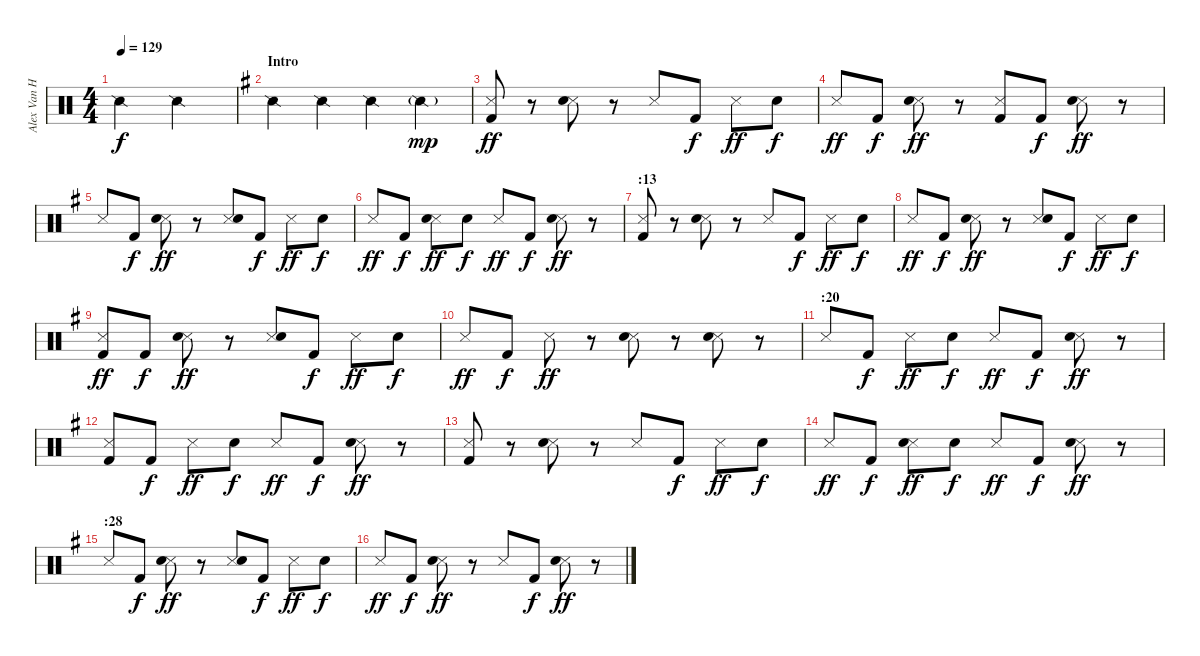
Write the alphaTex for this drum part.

\track ("Alex Van Halen" "Alex Van H") {instrument percussion}
\staff {score}
\articulation defaults
\ts (4 4)
\tempo 129
\clef neutral
\ks c "Snare (side stick) 2".2{dy f} "Snare (side stick) 2".2
|
\section ("" "Intro")
\ks eminor "Snare (side stick) 2".4 "Snare (side stick) 2".4 "Snare (side stick) 2".4 "Snare (side stick) 2"{g}.4{dy mp}
|
("Snare (side stick) 3" "Kick (hit) 2").8{dy ff} r.8 ("Snare (side stick) 3" "Snare (hit) 2").8 r.8 "Snare (side stick) 3".8 "Kick (hit) 2".8{dy f} "Snare (side stick) 3".8{dy ff} "Snare (hit) 2".8{dy f} |
"Snare (side stick) 3".8{dy ff} "Kick (hit) 2".8{dy f} ("Snare (side stick) 3" "Snare (hit) 2").8{dy ff} r.8 ("Snare (side stick) 3" "Kick (hit) 2").8 "Kick (hit) 2".8{dy f} ("Snare (side stick) 3" "Snare (hit) 2").8{dy ff} r.8 |
"Snare (side stick) 3".8 "Kick (hit) 2".8{dy f} ("Snare (side stick) 3" "Snare (hit) 2").8{dy ff} r.8 ("Snare (side stick) 3" "Snare (hit) 2").8 "Kick (hit) 2".8{dy f} "Snare (side stick) 3".8{dy ff} "Snare (hit) 2".8{dy f} |
"Snare (side stick) 3".8{dy ff} "Kick (hit) 2".8{dy f} ("Snare (side stick) 3" "Snare (hit) 2").8{dy ff} "Snare (hit) 2".8{dy f} "Snare (side stick) 3".8{dy ff} "Kick (hit) 2".8{dy f} ("Snare (side stick) 3" "Snare (hit) 2").8{dy ff} r.8 |
\section ("" ":13")
("Snare (side stick) 3" "Kick (hit) 2").8 r.8 ("Snare (side stick) 3" "Snare (hit) 2").8 r.8 "Snare (side stick) 3".8 "Kick (hit) 2".8{dy f} "Snare (side stick) 3".8{dy ff} "Snare (hit) 2".8{dy f} |
"Snare (side stick) 3".8{dy ff} "Kick (hit) 2".8{dy f} ("Snare (side stick) 3" "Snare (hit) 2").8{dy ff} r.8 ("Snare (side stick) 3" "Snare (hit) 2").8 "Kick (hit) 2".8{dy f} "Snare (side stick) 3".8{dy ff} "Snare (hit) 2".8{dy f} |
("Snare (side stick) 3" "Kick (hit) 2").8{dy ff} "Kick (hit) 2".8{dy f} ("Snare (side stick) 3" "Snare (hit) 2").8{dy ff} r.8 ("Snare (side stick) 3" "Snare (hit) 2").8 "Kick (hit) 2".8{dy f} "Snare (side stick) 3".8{dy ff} "Snare (hit) 2".8{dy f} |
"Snare (side stick) 3".8{dy ff} "Kick (hit) 2".8{dy f} "Snare (side stick) 3".8{dy ff} r.8 ("Snare (side stick) 3" "Snare (hit) 2").8 r.8 ("Snare (side stick) 3" "Snare (hit) 2").8 r.8 |
\section ("" ":20")
"Snare (side stick) 3".8 "Kick (hit) 2".8{dy f} "Snare (side stick) 3".8{dy ff} "Snare (hit) 2".8{dy f} "Snare (side stick) 3".8{dy ff} "Kick (hit) 2".8{dy f} ("Snare (side stick) 3" "Snare (hit) 2").8{dy ff} r.8 |
("Snare (side stick) 3" "Kick (hit) 2").8 "Kick (hit) 2".8{dy f} "Snare (side stick) 3".8{dy ff} "Snare (hit) 2".8{dy f} "Snare (side stick) 3".8{dy ff} "Kick (hit) 2".8{dy f} ("Snare (side stick) 3" "Snare (hit) 2").8{dy ff} r.8 |
("Snare (side stick) 3" "Kick (hit) 2").8 r.8 ("Snare (side stick) 3" "Snare (hit) 2").8 r.8 "Snare (side stick) 3".8 "Kick (hit) 2".8{dy f} "Snare (side stick) 3".8{dy ff} "Snare (hit) 2".8{dy f} |
"Snare (side stick) 3".8{dy ff} "Kick (hit) 2".8{dy f} ("Snare (side stick) 3" "Snare (hit) 2").8{dy ff} "Snare (hit) 2".8{dy f} "Snare (side stick) 3".8{dy ff} "Kick (hit) 2".8{dy f} ("Snare (side stick) 3" "Snare (hit) 2").8{dy ff} r.8 |
\section ("" ":28")
"Snare (side stick) 3".8 "Kick (hit) 2".8{dy f} ("Snare (side stick) 3" "Snare (hit) 2").8{dy ff} r.8 ("Snare (side stick) 3" "Snare (hit) 2").8 "Kick (hit) 2".8{dy f} "Snare (side stick) 3".8{dy ff} "Snare (hit) 2".8{dy f} |
"Snare (side stick) 3".8{dy ff} "Kick (hit) 2".8{dy f} ("Snare (side stick) 3" "Snare (hit) 2").8{dy ff} r.8 "Snare (side stick) 3".8 "Kick (hit) 2".8{dy f} ("Snare (side stick) 3" "Snare (hit) 2").8{dy ff} r.8
